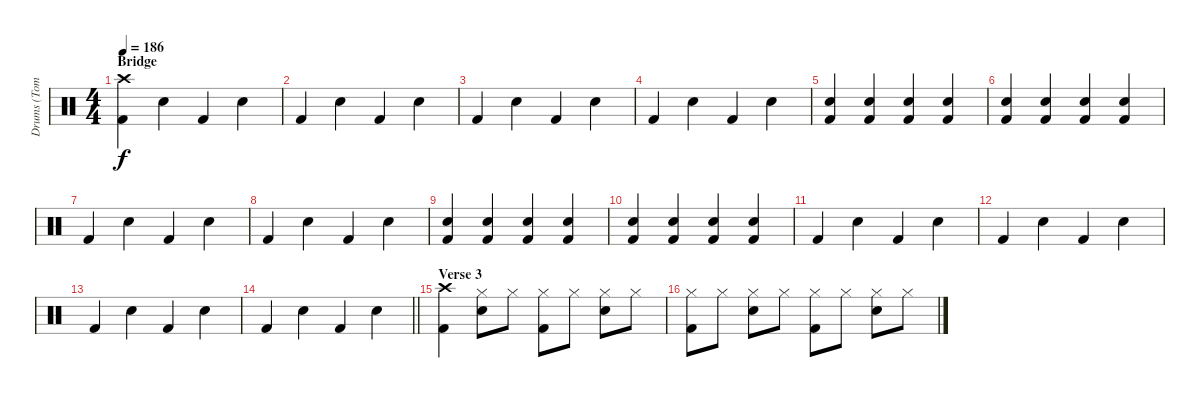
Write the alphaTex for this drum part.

\track ("Drums (Tommy)" "Drums (Tom") {instrument percussion}
\staff {score}
\articulation defaults
\ts (4 4)
\section ("" "Bridge")
\tempo 186
\clef neutral
\ks c
("Crash high (hit)" "Kick (hit) 2").4{dy f} "Electric Snare (hit)".4 "Kick (hit) 2".4 "Electric Snare (hit)".4 |
"Kick (hit) 2".4 "Electric Snare (hit)".4 "Kick (hit) 2".4 "Electric Snare (hit)".4 |
"Kick (hit) 2".4 "Electric Snare (hit)".4 "Kick (hit) 2".4 "Electric Snare (hit)".4 |
"Kick (hit) 2".4 "Electric Snare (hit)".4 "Kick (hit) 2".4 "Electric Snare (hit)".4 |
("Electric Snare (hit)" "Kick (hit) 2").4 ("Electric Snare (hit)" "Kick (hit) 2").4 ("Electric Snare (hit)" "Kick (hit) 2").4 ("Electric Snare (hit)" "Kick (hit) 2").4 |
("Electric Snare (hit)" "Kick (hit) 2").4 ("Electric Snare (hit)" "Kick (hit) 2").4 ("Electric Snare (hit)" "Kick (hit) 2").4 ("Electric Snare (hit)" "Kick (hit) 2").4 |
"Kick (hit) 2".4 "Electric Snare (hit)".4 "Kick (hit) 2".4 "Electric Snare (hit)".4 |
"Kick (hit) 2".4 "Electric Snare (hit)".4 "Kick (hit) 2".4 "Electric Snare (hit)".4 |
("Electric Snare (hit)" "Kick (hit) 2").4 ("Electric Snare (hit)" "Kick (hit) 2").4 ("Electric Snare (hit)" "Kick (hit) 2").4 ("Electric Snare (hit)" "Kick (hit) 2").4 |
("Electric Snare (hit)" "Kick (hit) 2").4 ("Electric Snare (hit)" "Kick (hit) 2").4 ("Electric Snare (hit)" "Kick (hit) 2").4 ("Electric Snare (hit)" "Kick (hit) 2").4 |
"Kick (hit) 2".4 "Electric Snare (hit)".4 "Kick (hit) 2".4 "Electric Snare (hit)".4 |
"Kick (hit) 2".4 "Electric Snare (hit)".4 "Kick (hit) 2".4 "Electric Snare (hit)".4 |
"Kick (hit) 2".4 "Electric Snare (hit)".4 "Kick (hit) 2".4 "Electric Snare (hit)".4 |
\barLineRight lightlight "Kick (hit) 2".4 "Electric Snare (hit)".4 "Kick (hit) 2".4 "Electric Snare (hit)".4
|
\section ("" "Verse 3")
("Crash high (hit)" "Kick (hit) 2").4 ("Hi-Hat (closed)" "Electric Snare (hit)").8 "Hi-Hat (closed)".8 ("Hi-Hat (closed)" "Kick (hit) 2").8 "Hi-Hat (closed)".8 ("Hi-Hat (closed)" "Electric Snare (hit)").8 "Hi-Hat (closed)".8 |
("Hi-Hat (closed)" "Kick (hit) 2").8 "Hi-Hat (closed)".8 ("Hi-Hat (closed)" "Electric Snare (hit)").8 "Hi-Hat (closed)".8 ("Hi-Hat (closed)" "Kick (hit) 2").8 "Hi-Hat (closed)".8 ("Hi-Hat (closed)" "Electric Snare (hit)").8 "Hi-Hat (closed)".8
